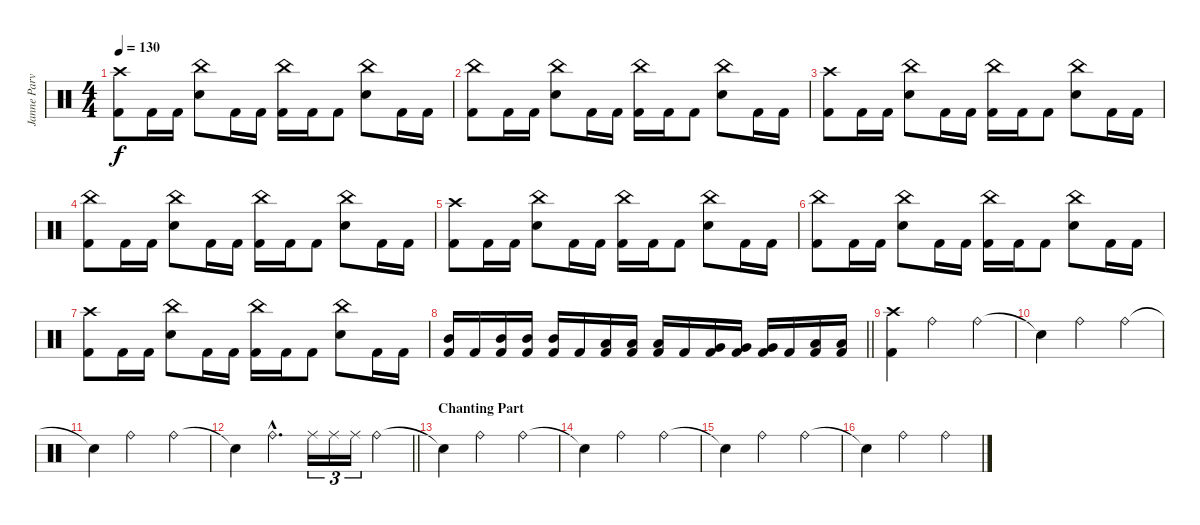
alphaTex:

\track ("Janne Parviainen" "Janne Parv") {instrument percussion}
\staff {score}
\articulation defaults
\ts (4 4)
\tempo 130
\clef neutral
\ks c
("Crash high (hit)" "Kick (hit) 2").8{dy f} "Kick (hit) 2".16 "Kick (hit) 2".16 ("China (hit)" "Electric Snare (hit)").8 "Kick (hit) 2".16 "Kick (hit) 2".16 ("China (hit)" "Kick (hit) 2").16 "Kick (hit) 2".16 "Kick (hit) 2".8 ("China (hit)" "Electric Snare (hit)").8 "Kick (hit) 2".16 "Kick (hit) 2".16 |
("China (hit)" "Kick (hit) 2").8 "Kick (hit) 2".16 "Kick (hit) 2".16 ("China (hit)" "Electric Snare (hit)").8 "Kick (hit) 2".16 "Kick (hit) 2".16 ("China (hit)" "Kick (hit) 2").16 "Kick (hit) 2".16 "Kick (hit) 2".8 ("China (hit)" "Electric Snare (hit)").8 "Kick (hit) 2".16 "Kick (hit) 2".16 |
("Crash high (hit)" "Kick (hit) 2").8 "Kick (hit) 2".16 "Kick (hit) 2".16 ("China (hit)" "Electric Snare (hit)").8 "Kick (hit) 2".16 "Kick (hit) 2".16 ("China (hit)" "Kick (hit) 2").16 "Kick (hit) 2".16 "Kick (hit) 2".8 ("China (hit)" "Electric Snare (hit)").8 "Kick (hit) 2".16 "Kick (hit) 2".16 |
("China (hit)" "Kick (hit) 2").8 "Kick (hit) 2".16 "Kick (hit) 2".16 ("China (hit)" "Electric Snare (hit)").8 "Kick (hit) 2".16 "Kick (hit) 2".16 ("China (hit)" "Kick (hit) 2").16 "Kick (hit) 2".16 "Kick (hit) 2".8 ("China (hit)" "Electric Snare (hit)").8 "Kick (hit) 2".16 "Kick (hit) 2".16 |
("Crash high (hit)" "Kick (hit) 2").8 "Kick (hit) 2".16 "Kick (hit) 2".16 ("China (hit)" "Electric Snare (hit)").8 "Kick (hit) 2".16 "Kick (hit) 2".16 ("China (hit)" "Kick (hit) 2").16 "Kick (hit) 2".16 "Kick (hit) 2".8 ("China (hit)" "Electric Snare (hit)").8 "Kick (hit) 2".16 "Kick (hit) 2".16 |
("China (hit)" "Kick (hit) 2").8 "Kick (hit) 2".16 "Kick (hit) 2".16 ("China (hit)" "Electric Snare (hit)").8 "Kick (hit) 2".16 "Kick (hit) 2".16 ("China (hit)" "Kick (hit) 2").16 "Kick (hit) 2".16 "Kick (hit) 2".8 ("China (hit)" "Electric Snare (hit)").8 "Kick (hit) 2".16 "Kick (hit) 2".16 |
("Crash high (hit)" "Kick (hit) 2").8 "Kick (hit) 2".16 "Kick (hit) 2".16 ("China (hit)" "Electric Snare (hit)").8 "Kick (hit) 2".16 "Kick (hit) 2".16 ("China (hit)" "Kick (hit) 2").16 "Kick (hit) 2".16 "Kick (hit) 2".8 ("China (hit)" "Electric Snare (hit)").8 "Kick (hit) 2".16 "Kick (hit) 2".16 |
\barLineRight lightlight
("Mid Tom (hit)" "Kick (hit) 2").16 "Kick (hit) 2".16 ("Mid Tom (hit)" "Kick (hit) 2").16 ("Mid Tom (hit)" "Kick (hit) 2").16 ("Mid Tom (hit)" "Kick (hit) 2").16 "Kick (hit) 2".16 ("Low Tom (hit)" "Kick (hit) 2").16 ("Low Tom (hit)" "Kick (hit) 2").16 ("Low Tom (hit)" "Kick (hit) 2").16 "Kick (hit) 2".16 ("Very Low Tom (hit)" "Kick (hit) 2").16 ("Very Low Tom (hit)" "Kick (hit) 2").16 ("Very Low Tom (hit)" "Kick (hit) 2").16 "Kick (hit) 2".16 ("Low Floor Tom (hit)" "Kick (hit) 2").16 ("Low Floor Tom (hit)" "Kick (hit) 2").16 |
\section ("" "")
("Crash high (hit)" "Kick (hit) 2").4 "Ride (bell)".2 "Ride (bell)".4 |
"Snare (hit)"{t}.4 "Ride (bell)".2 "Ride (bell)".4 |
"Snare (hit)"{t}.4 "Ride (bell)".2 "Ride (bell)".4 |
\barLineRight lightlight "Snare (hit)"{t}.4 "Ride (bell)"{hac}.4{d} "Ride (middle)".16{tu (3 2)} "Ride (middle)".16{tu (3 2)} "Ride (middle)".16{tu (3 2)} "Ride (bell)".4
|
\section ("" "Chanting Part")
"Snare (hit)"{t}.4 "Ride (bell)".2 "Ride (bell)".4 |
"Snare (hit)"{t}.4 "Ride (bell)".2 "Ride (bell)".4 |
"Snare (hit)"{t}.4 "Ride (bell)".2 "Ride (bell)".4 |
"Snare (hit)"{t}.4 "Ride (bell)".2 "Ride (bell)".4
